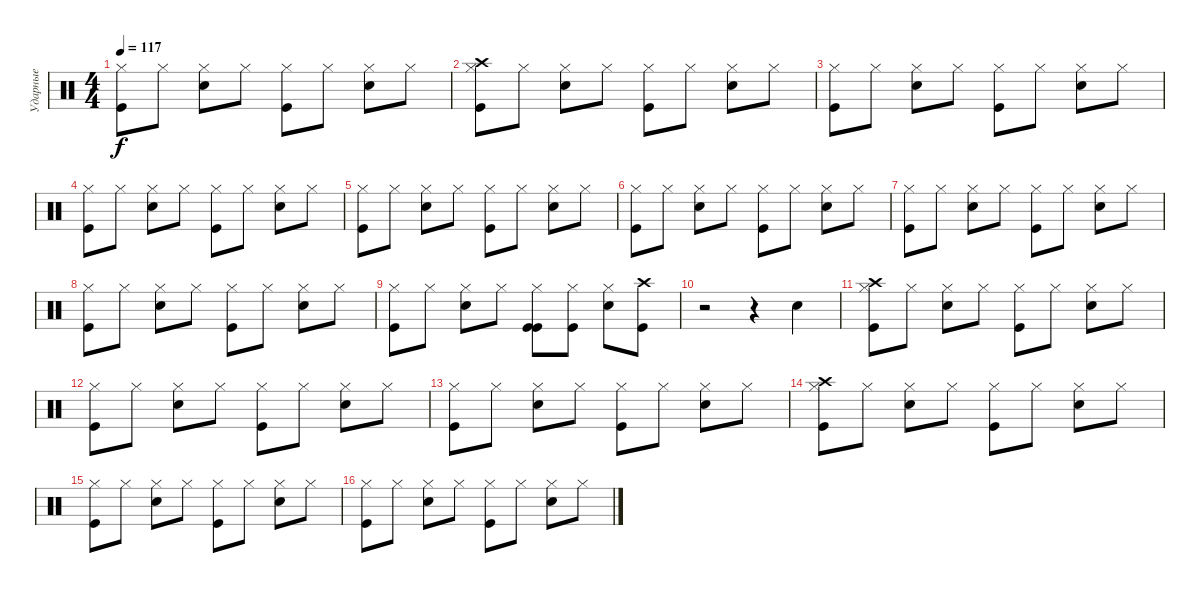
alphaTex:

\track ("Ударные" "Ударные") {instrument percussion}
\staff {score}
\articulation defaults
\ts (4 4)
\tempo 117
\clef neutral
\ks c
("Kick (hit)" "Hi-Hat (closed)").8{dy f} "Hi-Hat (closed)".8 ("Hi-Hat (closed)" "Snare (hit) 2").8 "Hi-Hat (closed)".8 ("Kick (hit)" "Hi-Hat (closed)").8 "Hi-Hat (closed)".8 ("Hi-Hat (closed)" "Snare (hit) 2").8 "Hi-Hat (closed)".8 |
("Kick (hit)" "Hi-Hat (closed)" "Crash high (hit)").8 "Hi-Hat (closed)".8 ("Hi-Hat (closed)" "Snare (hit) 2").8 "Hi-Hat (closed)".8 ("Kick (hit)" "Hi-Hat (closed)").8 "Hi-Hat (closed)".8 ("Hi-Hat (closed)" "Snare (hit) 2").8 "Hi-Hat (closed)".8 |
("Kick (hit)" "Hi-Hat (closed)").8 "Hi-Hat (closed)".8 ("Hi-Hat (closed)" "Snare (hit) 2").8 "Hi-Hat (closed)".8 ("Kick (hit)" "Hi-Hat (closed)").8 "Hi-Hat (closed)".8 ("Hi-Hat (closed)" "Snare (hit) 2").8 "Hi-Hat (closed)".8 |
("Kick (hit)" "Hi-Hat (closed)").8 "Hi-Hat (closed)".8 ("Hi-Hat (closed)" "Snare (hit) 2").8 "Hi-Hat (closed)".8 ("Kick (hit)" "Hi-Hat (closed)").8 "Hi-Hat (closed)".8 ("Hi-Hat (closed)" "Snare (hit) 2").8 "Hi-Hat (closed)".8 |
("Kick (hit)" "Hi-Hat (closed)").8 "Hi-Hat (closed)".8 ("Hi-Hat (closed)" "Snare (hit) 2").8 "Hi-Hat (closed)".8 ("Kick (hit)" "Hi-Hat (closed)").8 "Hi-Hat (closed)".8 ("Hi-Hat (closed)" "Snare (hit) 2").8 "Hi-Hat (closed)".8 |
("Kick (hit)" "Hi-Hat (closed)").8 "Hi-Hat (closed)".8 ("Hi-Hat (closed)" "Snare (hit) 2").8 "Hi-Hat (closed)".8 ("Kick (hit)" "Hi-Hat (closed)").8 "Hi-Hat (closed)".8 ("Hi-Hat (closed)" "Snare (hit) 2").8 "Hi-Hat (closed)".8 |
("Kick (hit)" "Hi-Hat (closed)").8 "Hi-Hat (closed)".8 ("Hi-Hat (closed)" "Snare (hit) 2").8 "Hi-Hat (closed)".8 ("Kick (hit)" "Hi-Hat (closed)").8 "Hi-Hat (closed)".8 ("Hi-Hat (closed)" "Snare (hit) 2").8 "Hi-Hat (closed)".8 |
("Kick (hit)" "Hi-Hat (closed)").8 "Hi-Hat (closed)".8 ("Hi-Hat (closed)" "Snare (hit) 2").8 "Hi-Hat (closed)".8 ("Kick (hit)" "Hi-Hat (closed)").8 "Hi-Hat (closed)".8 ("Hi-Hat (closed)" "Snare (hit) 2").8 "Hi-Hat (closed)".8 |
("Kick (hit)" "Hi-Hat (closed)").8 "Hi-Hat (closed)".8 ("Hi-Hat (closed)" "Snare (hit) 2").8 "Hi-Hat (closed)".8 ("Kick (hit)" "Kick (hit)" "Hi-Hat (closed)").8 ("Kick (hit)" "Hi-Hat (closed)").8 ("Hi-Hat (closed)" "Snare (hit) 2").8 ("Kick (hit)" "Crash high (hit)").8 |
r.2 r.4 "Snare (hit) 2".4 |
("Kick (hit)" "Hi-Hat (closed)" "Crash high (hit)").8 "Hi-Hat (closed)".8 ("Hi-Hat (closed)" "Snare (hit) 2").8 "Hi-Hat (closed)".8 ("Kick (hit)" "Hi-Hat (closed)").8 "Hi-Hat (closed)".8 ("Hi-Hat (closed)" "Snare (hit) 2").8 "Hi-Hat (closed)".8 |
("Kick (hit)" "Hi-Hat (closed)").8 "Hi-Hat (closed)".8 ("Hi-Hat (closed)" "Snare (hit) 2").8 "Hi-Hat (closed)".8 ("Kick (hit)" "Hi-Hat (closed)").8 "Hi-Hat (closed)".8 ("Hi-Hat (closed)" "Snare (hit) 2").8 "Hi-Hat (closed)".8 |
("Kick (hit)" "Hi-Hat (closed)").8 "Hi-Hat (closed)".8 ("Hi-Hat (closed)" "Snare (hit) 2").8 "Hi-Hat (closed)".8 ("Kick (hit)" "Hi-Hat (closed)").8 "Hi-Hat (closed)".8 ("Hi-Hat (closed)" "Snare (hit) 2").8 "Hi-Hat (closed)".8 |
("Kick (hit)" "Hi-Hat (closed)" "Crash high (hit)").8 "Hi-Hat (closed)".8 ("Hi-Hat (closed)" "Snare (hit) 2").8 "Hi-Hat (closed)".8 ("Kick (hit)" "Hi-Hat (closed)").8 "Hi-Hat (closed)".8 ("Hi-Hat (closed)" "Snare (hit) 2").8 "Hi-Hat (closed)".8 |
("Kick (hit)" "Hi-Hat (closed)").8 "Hi-Hat (closed)".8 ("Hi-Hat (closed)" "Snare (hit) 2").8 "Hi-Hat (closed)".8 ("Kick (hit)" "Hi-Hat (closed)").8 "Hi-Hat (closed)".8 ("Hi-Hat (closed)" "Snare (hit) 2").8 "Hi-Hat (closed)".8 |
("Kick (hit)" "Hi-Hat (closed)").8 "Hi-Hat (closed)".8 ("Hi-Hat (closed)" "Snare (hit) 2").8 "Hi-Hat (closed)".8 ("Kick (hit)" "Hi-Hat (closed)").8 "Hi-Hat (closed)".8 ("Hi-Hat (closed)" "Snare (hit) 2").8 "Hi-Hat (closed)".8
